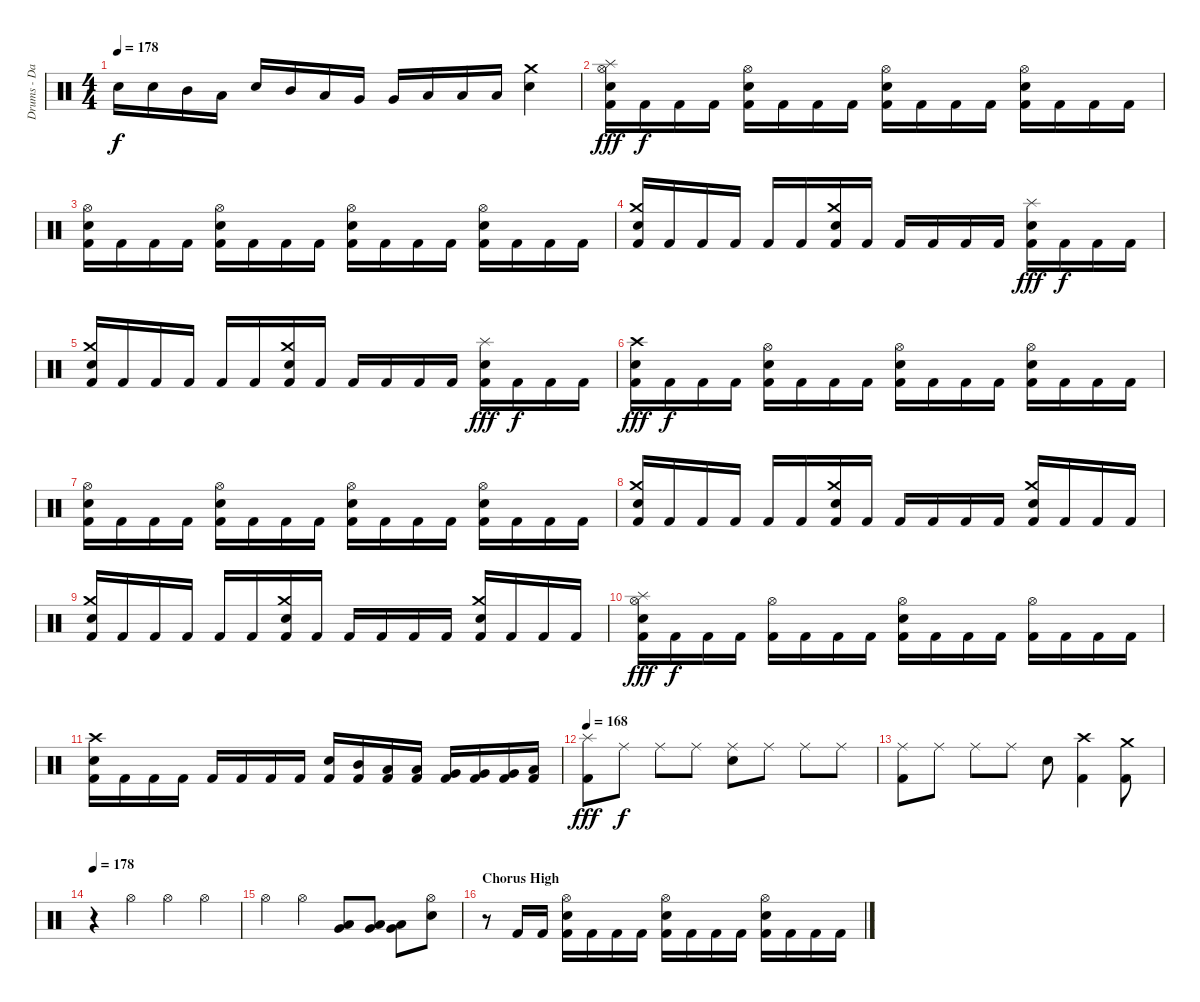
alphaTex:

\track ("Drums - Daniel Zimmermann" "Drums - Da") {instrument percussion}
\staff {score}
\articulation defaults
\ts (4 4)
\tempo 178
\clef neutral
\ks c "Electric Snare (hit)".16{dy f} "Electric Snare (hit)".16 "Mid Tom (hit)".16 "Low Tom (hit)".16 "Electric Snare (hit)".16 "Mid Tom (hit)".16 "Low Tom (hit)".16 "Very Low Tom (hit)".16 "Very Low Tom (hit)".16 "Low Floor Tom (hit)".16 "Low Floor Tom (hit)".16 "Low Floor Tom (hit)".16
("Electric Snare (hit)" "Crash medium (hit)").4 |
("Kick (hit) 2" "Electric Snare (hit)" "Splash (hit)" "Hi-Hat (open)").16{dy fff} "Kick (hit) 2".16{dy f} "Kick (hit) 2".16 "Kick (hit) 2".16 ("Kick (hit) 2" "Electric Snare (hit)" "Hi-Hat (open)").16 "Kick (hit) 2".16 "Kick (hit) 2".16 "Kick (hit) 2".16 ("Kick (hit) 2" "Electric Snare (hit)" "Hi-Hat (open)").16 "Kick (hit) 2".16 "Kick (hit) 2".16 "Kick (hit) 2".16 ("Kick (hit) 2" "Electric Snare (hit)" "Hi-Hat (open)").16 "Kick (hit) 2".16 "Kick (hit) 2".16 "Kick (hit) 2".16 |
("Kick (hit) 2" "Electric Snare (hit)" "Hi-Hat (open)").16 "Kick (hit) 2".16 "Kick (hit) 2".16 "Kick (hit) 2".16 ("Kick (hit) 2" "Electric Snare (hit)" "Hi-Hat (open)").16 "Kick (hit) 2".16 "Kick (hit) 2".16 "Kick (hit) 2".16 ("Kick (hit) 2" "Electric Snare (hit)" "Hi-Hat (open)").16 "Kick (hit) 2".16 "Kick (hit) 2".16 "Kick (hit) 2".16 ("Kick (hit) 2" "Electric Snare (hit)" "Hi-Hat (open)").16 "Kick (hit) 2".16 "Kick (hit) 2".16 "Kick (hit) 2".16 |
("Kick (hit) 2" "Electric Snare (hit)" "Crash medium (hit)").16 "Kick (hit) 2".16 "Kick (hit) 2".16 "Kick (hit) 2".16 "Kick (hit) 2".16 "Kick (hit) 2".16 ("Kick (hit) 2" "Electric Snare (hit)" "Crash medium (hit)").16 "Kick (hit) 2".16 "Kick (hit) 2".16 "Kick (hit) 2".16 "Kick (hit) 2".16 "Kick (hit) 2".16 ("Kick (hit) 2" "Electric Snare (hit)" "Splash (hit)").16{dy fff} "Kick (hit) 2".16{dy f} "Kick (hit) 2".16 "Kick (hit) 2".16 |
("Kick (hit) 2" "Electric Snare (hit)" "Crash medium (hit)").16 "Kick (hit) 2".16 "Kick (hit) 2".16 "Kick (hit) 2".16 "Kick (hit) 2".16 "Kick (hit) 2".16 ("Kick (hit) 2" "Electric Snare (hit)" "Crash medium (hit)").16 "Kick (hit) 2".16 "Kick (hit) 2".16 "Kick (hit) 2".16 "Kick (hit) 2".16 "Kick (hit) 2".16 ("Kick (hit) 2" "Electric Snare (hit)" "Splash (hit)").16{dy fff} "Kick (hit) 2".16{dy f} "Kick (hit) 2".16 "Kick (hit) 2".16 |
("Kick (hit) 2" "Electric Snare (hit)" "Crash high (hit)").16{dy fff} "Kick (hit) 2".16{dy f} "Kick (hit) 2".16 "Kick (hit) 2".16 ("Kick (hit) 2" "Electric Snare (hit)" "Hi-Hat (open)").16 "Kick (hit) 2".16 "Kick (hit) 2".16 "Kick (hit) 2".16 ("Kick (hit) 2" "Electric Snare (hit)" "Hi-Hat (open)").16 "Kick (hit) 2".16 "Kick (hit) 2".16 "Kick (hit) 2".16 ("Kick (hit) 2" "Electric Snare (hit)" "Hi-Hat (open)").16 "Kick (hit) 2".16 "Kick (hit) 2".16 "Kick (hit) 2".16 |
("Kick (hit) 2" "Electric Snare (hit)" "Hi-Hat (open)").16 "Kick (hit) 2".16 "Kick (hit) 2".16 "Kick (hit) 2".16 ("Kick (hit) 2" "Electric Snare (hit)" "Hi-Hat (open)").16 "Kick (hit) 2".16 "Kick (hit) 2".16 "Kick (hit) 2".16 ("Kick (hit) 2" "Electric Snare (hit)" "Hi-Hat (open)").16 "Kick (hit) 2".16 "Kick (hit) 2".16 "Kick (hit) 2".16 ("Kick (hit) 2" "Electric Snare (hit)" "Hi-Hat (open)").16 "Kick (hit) 2".16 "Kick (hit) 2".16 "Kick (hit) 2".16 |
("Kick (hit) 2" "Electric Snare (hit)" "Crash medium (hit)").16 "Kick (hit) 2".16 "Kick (hit) 2".16 "Kick (hit) 2".16 "Kick (hit) 2".16 "Kick (hit) 2".16 ("Kick (hit) 2" "Electric Snare (hit)" "Crash medium (hit)").16 "Kick (hit) 2".16 "Kick (hit) 2".16 "Kick (hit) 2".16 "Kick (hit) 2".16 "Kick (hit) 2".16 ("Kick (hit) 2" "Electric Snare (hit)" "Crash medium (hit)").16 "Kick (hit) 2".16 "Kick (hit) 2".16 "Kick (hit) 2".16 |
("Kick (hit) 2" "Electric Snare (hit)" "Crash medium (hit)").16 "Kick (hit) 2".16 "Kick (hit) 2".16 "Kick (hit) 2".16 "Kick (hit) 2".16 "Kick (hit) 2".16 ("Kick (hit) 2" "Electric Snare (hit)" "Crash medium (hit)").16 "Kick (hit) 2".16 "Kick (hit) 2".16 "Kick (hit) 2".16 "Kick (hit) 2".16 "Kick (hit) 2".16 ("Kick (hit) 2" "Electric Snare (hit)" "Crash medium (hit)").16 "Kick (hit) 2".16 "Kick (hit) 2".16 "Kick (hit) 2".16 |
("Kick (hit) 2" "Electric Snare (hit)" "Splash (hit)" "Hi-Hat (open)").16{dy fff} "Kick (hit) 2".16{dy f} "Kick (hit) 2".16 "Kick (hit) 2".16 ("Kick (hit) 2" "Hi-Hat (open)").16 "Kick (hit) 2".16 "Kick (hit) 2".16 "Kick (hit) 2".16 ("Kick (hit) 2" "Electric Snare (hit)" "Hi-Hat (open)").16 "Kick (hit) 2".16 "Kick (hit) 2".16 "Kick (hit) 2".16 ("Kick (hit) 2" "Hi-Hat (open)").16 "Kick (hit) 2".16 "Kick (hit) 2".16 "Kick (hit) 2".16 |
("Kick (hit) 2" "Electric Snare (hit)" "Crash high (hit)").16 "Kick (hit) 2".16 "Kick (hit) 2".16 "Kick (hit) 2".16 "Kick (hit) 2".16 "Kick (hit) 2".16 "Kick (hit) 2".16 "Kick (hit) 2".16 ("Kick (hit) 2" "Electric Snare (hit)").16 ("Kick (hit) 2" "Mid Tom (hit)").16 ("Kick (hit) 2" "Low Tom (hit)").16 ("Kick (hit) 2" "Low Tom (hit)").16 ("Kick (hit) 2" "Very Low Tom (hit)").16 ("Kick (hit) 2" "Very Low Tom (hit)").16 ("Kick (hit) 2" "Very Low Tom (hit)").16 ("Kick (hit) 2" "Low Floor Tom (hit)").16 |
\tempo 168
("Kick (hit) 2" "Splash (hit)").8{dy fff} "Ride (middle)".8{dy f} "Ride (middle)".8 "Ride (middle)".8 ("Electric Snare (hit)" "Ride (middle)").8 "Ride (middle)".8 "Ride (middle)".8 "Ride (middle)".8 |
("Kick (hit) 2" "Ride (middle)").8 "Ride (middle)".8 "Ride (middle)".8 "Ride (middle)".8 "Electric Snare (hit)".8 ("Kick (hit) 2" "Crash high (hit)").4 ("Kick (hit) 2" "Crash medium (hit)").8 |
\tempo 178
r.4 "Hi-Hat (open)".4 "Hi-Hat (open)".4 "Hi-Hat (open)".4 |
"Hi-Hat (open)".4 "Hi-Hat (open)".4 ("Very Low Tom (hit)" "Low Floor Tom (hit)").8 ("Very Low Tom (hit)" "Low Floor Tom (hit)").8 ("Very Low Tom (hit)" "Low Floor Tom (hit)").8 ("Electric Snare (hit)" "Hi-Hat (open)").8 |
\section ("" "Chorus High")
r.8 "Kick (hit) 2".16 "Kick (hit) 2".16 ("Kick (hit) 2" "Electric Snare (hit)" "Hi-Hat (open)").16 "Kick (hit) 2".16 "Kick (hit) 2".16 "Kick (hit) 2".16 ("Kick (hit) 2" "Electric Snare (hit)" "Hi-Hat (open)").16 "Kick (hit) 2".16 "Kick (hit) 2".16 "Kick (hit) 2".16 ("Kick (hit) 2" "Electric Snare (hit)" "Hi-Hat (open)").16 "Kick (hit) 2".16 "Kick (hit) 2".16 "Kick (hit) 2".16
